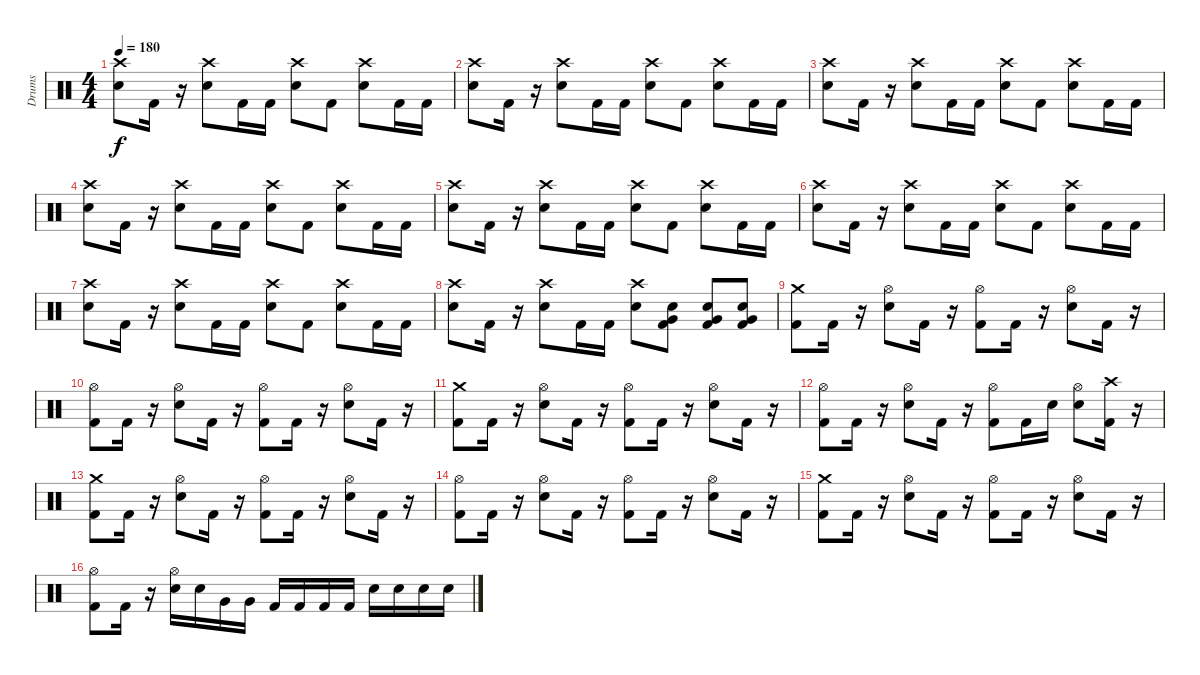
\track ("Drums" "Drums") {instrument percussion}
\staff {score}
\articulation defaults
\ts (4 4)
\tempo 180
\clef neutral
\ks c
("Electric Snare (hit)" "Crash high (hit)").8{dy f} "Kick (hit) 2".16 r.16 ("Electric Snare (hit)" "Crash high (hit)").8 "Kick (hit) 2".16 "Kick (hit) 2".16 ("Electric Snare (hit)" "Crash high (hit)").8 "Kick (hit) 2".8 ("Electric Snare (hit)" "Crash high (hit)").8 "Kick (hit) 2".16 "Kick (hit) 2".16 |
("Electric Snare (hit)" "Crash high (hit)").8 "Kick (hit) 2".16 r.16 ("Electric Snare (hit)" "Crash high (hit)").8 "Kick (hit) 2".16 "Kick (hit) 2".16 ("Electric Snare (hit)" "Crash high (hit)").8 "Kick (hit) 2".8 ("Electric Snare (hit)" "Crash high (hit)").8 "Kick (hit) 2".16 "Kick (hit) 2".16 |
("Electric Snare (hit)" "Crash high (hit)").8 "Kick (hit) 2".16 r.16 ("Electric Snare (hit)" "Crash high (hit)").8 "Kick (hit) 2".16 "Kick (hit) 2".16 ("Electric Snare (hit)" "Crash high (hit)").8 "Kick (hit) 2".8 ("Electric Snare (hit)" "Crash high (hit)").8 "Kick (hit) 2".16 "Kick (hit) 2".16 |
("Electric Snare (hit)" "Crash high (hit)").8 "Kick (hit) 2".16 r.16 ("Electric Snare (hit)" "Crash high (hit)").8 "Kick (hit) 2".16 "Kick (hit) 2".16 ("Electric Snare (hit)" "Crash high (hit)").8 "Kick (hit) 2".8 ("Electric Snare (hit)" "Crash high (hit)").8 "Kick (hit) 2".16 "Kick (hit) 2".16 |
("Electric Snare (hit)" "Crash high (hit)").8 "Kick (hit) 2".16 r.16 ("Electric Snare (hit)" "Crash high (hit)").8 "Kick (hit) 2".16 "Kick (hit) 2".16 ("Electric Snare (hit)" "Crash high (hit)").8 "Kick (hit) 2".8 ("Electric Snare (hit)" "Crash high (hit)").8 "Kick (hit) 2".16 "Kick (hit) 2".16 |
("Electric Snare (hit)" "Crash high (hit)").8 "Kick (hit) 2".16 r.16 ("Electric Snare (hit)" "Crash high (hit)").8 "Kick (hit) 2".16 "Kick (hit) 2".16 ("Electric Snare (hit)" "Crash high (hit)").8 "Kick (hit) 2".8 ("Electric Snare (hit)" "Crash high (hit)").8 "Kick (hit) 2".16 "Kick (hit) 2".16 |
("Electric Snare (hit)" "Crash high (hit)").8 "Kick (hit) 2".16 r.16 ("Electric Snare (hit)" "Crash high (hit)").8 "Kick (hit) 2".16 "Kick (hit) 2".16 ("Electric Snare (hit)" "Crash high (hit)").8 "Kick (hit) 2".8 ("Electric Snare (hit)" "Crash high (hit)").8 "Kick (hit) 2".16 "Kick (hit) 2".16 |
("Electric Snare (hit)" "Crash high (hit)").8 "Kick (hit) 2".16 r.16 ("Electric Snare (hit)" "Crash high (hit)").8 "Kick (hit) 2".16 "Kick (hit) 2".16 ("Electric Snare (hit)" "Crash high (hit)").8 ("Very Low Tom (hit)" "Electric Snare (hit)" "Kick (hit) 2").8 ("Kick (hit) 2" "Very Low Tom (hit)" "Electric Snare (hit)").8 ("Kick (hit) 2" "Very Low Tom (hit)" "Electric Snare (hit)").8 |
("Kick (hit) 2" "Crash medium (hit)").8 "Kick (hit) 2".16 r.16 ("Electric Snare (hit)" "Hi-Hat (open)").8 "Kick (hit) 2".16 r.16 ("Kick (hit) 2" "Hi-Hat (open)").8 "Kick (hit) 2".16 r.16 ("Electric Snare (hit)" "Hi-Hat (open)").8 "Kick (hit) 2".16 r.16 |
("Kick (hit) 2" "Hi-Hat (open)").8 "Kick (hit) 2".16 r.16 ("Electric Snare (hit)" "Hi-Hat (open)").8 "Kick (hit) 2".16 r.16 ("Kick (hit) 2" "Hi-Hat (open)").8 "Kick (hit) 2".16 r.16 ("Electric Snare (hit)" "Hi-Hat (open)").8 "Kick (hit) 2".16 r.16 |
("Kick (hit) 2" "Crash medium (hit)").8 "Kick (hit) 2".16 r.16 ("Electric Snare (hit)" "Hi-Hat (open)").8 "Kick (hit) 2".16 r.16 ("Kick (hit) 2" "Hi-Hat (open)").8 "Kick (hit) 2".16 r.16 ("Electric Snare (hit)" "Hi-Hat (open)").8 "Kick (hit) 2".16 r.16 |
("Kick (hit) 2" "Hi-Hat (open)").8 "Kick (hit) 2".16 r.16 ("Electric Snare (hit)" "Hi-Hat (open)").8 "Kick (hit) 2".16 r.16 ("Kick (hit) 2" "Hi-Hat (open)").8 "Kick (hit) 2".16 "Electric Snare (hit)".16 ("Electric Snare (hit)" "Hi-Hat (open)").8 ("Crash high (hit)" "Kick (hit) 2").16 r.16 |
("Kick (hit) 2" "Crash medium (hit)").8 "Kick (hit) 2".16 r.16 ("Electric Snare (hit)" "Hi-Hat (open)").8 "Kick (hit) 2".16 r.16 ("Kick (hit) 2" "Hi-Hat (open)").8 "Kick (hit) 2".16 r.16 ("Electric Snare (hit)" "Hi-Hat (open)").8 "Kick (hit) 2".16 r.16 |
("Kick (hit) 2" "Hi-Hat (open)").8 "Kick (hit) 2".16 r.16 ("Electric Snare (hit)" "Hi-Hat (open)").8 "Kick (hit) 2".16 r.16 ("Kick (hit) 2" "Hi-Hat (open)").8 "Kick (hit) 2".16 r.16 ("Electric Snare (hit)" "Hi-Hat (open)").8 "Kick (hit) 2".16 r.16 |
("Kick (hit) 2" "Crash medium (hit)").8 "Kick (hit) 2".16 r.16 ("Electric Snare (hit)" "Hi-Hat (open)").8 "Kick (hit) 2".16 r.16 ("Kick (hit) 2" "Hi-Hat (open)").8 "Kick (hit) 2".16 r.16 ("Electric Snare (hit)" "Hi-Hat (open)").8 "Kick (hit) 2".16 r.16 |
("Kick (hit) 2" "Hi-Hat (open)").8 "Kick (hit) 2".16 r.16 ("Electric Snare (hit)" "Hi-Hat (open)").16 "Electric Snare (hit)".16 "Very Low Tom (hit)".16 "Very Low Tom (hit)".16 "Kick (hit) 2".16 "Kick (hit) 2".16 "Kick (hit) 2".16 "Kick (hit) 2".16 "Electric Snare (hit)".16 "Electric Snare (hit)".16 "Electric Snare (hit)".16 "Electric Snare (hit)".16
